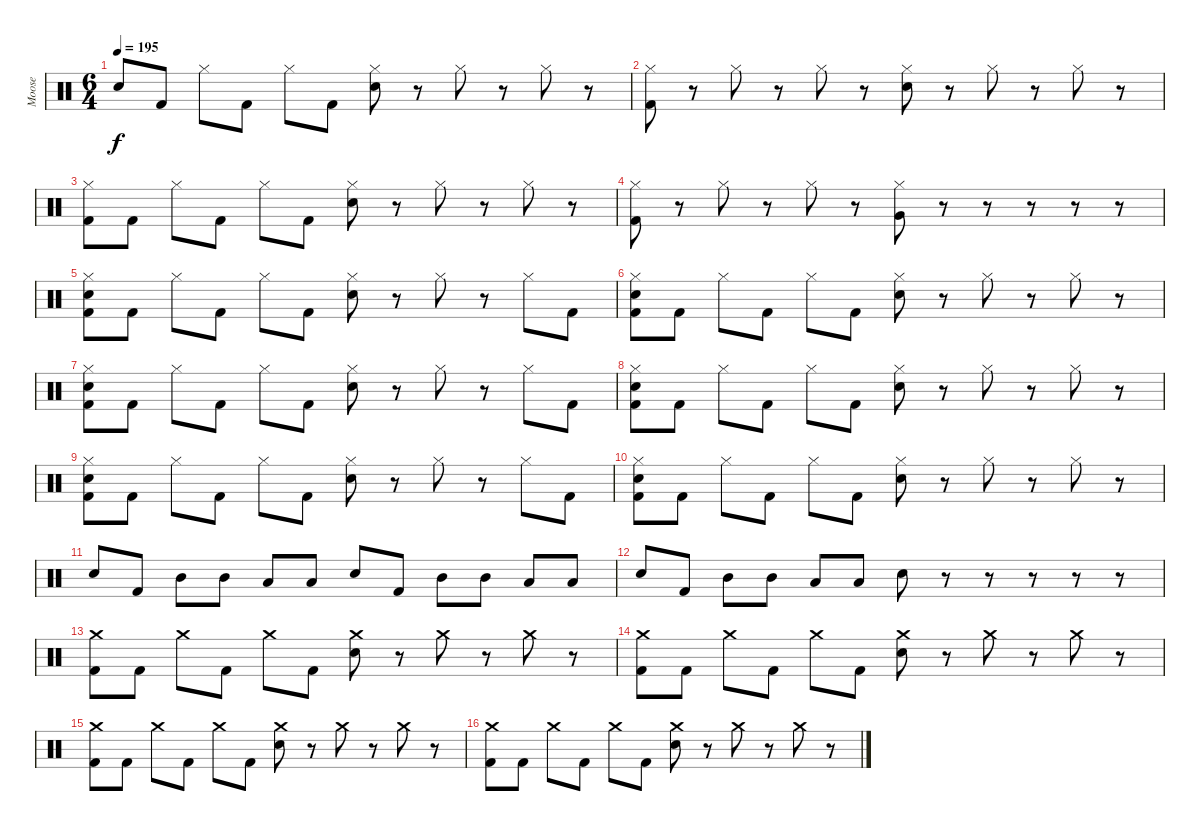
\track ("Moose" "Moose") {instrument percussion}
\staff {score}
\articulation defaults
\ts (6 4)
\tempo 195
\clef neutral
\ks c "Electric Snare (hit)".8{dy f} "Kick (hit) 2".8 "Hi-Hat (closed)".8 "Kick (hit) 2".8 "Hi-Hat (closed)".8 "Kick (hit) 2".8
("Hi-Hat (closed)" "Electric Snare (hit)").8 r.8 "Hi-Hat (closed)".8 r.8 "Hi-Hat (closed)".8 r.8 |
("Hi-Hat (closed)" "Kick (hit) 2").8 r.8 "Hi-Hat (closed)".8 r.8 "Hi-Hat (closed)".8 r.8 ("Hi-Hat (closed)" "Electric Snare (hit)").8 r.8 "Hi-Hat (closed)".8 r.8 "Hi-Hat (closed)".8 r.8 |
("Hi-Hat (closed)" "Kick (hit) 2").8 "Kick (hit) 2".8 "Hi-Hat (closed)".8 "Kick (hit) 2".8 "Hi-Hat (closed)".8 "Kick (hit) 2".8 ("Hi-Hat (closed)" "Electric Snare (hit)").8 r.8 "Hi-Hat (closed)".8 r.8 "Hi-Hat (closed)".8 r.8 |
("Hi-Hat (closed)" "Kick (hit) 2").8 r.8 "Hi-Hat (closed)".8 r.8 "Hi-Hat (closed)".8 r.8 ("Hi-Hat (closed)" "Very Low Tom (hit)").8 r.8 r.8 r.8 r.8 r.8 |
("Hi-Hat (closed)" "Electric Snare (hit)" "Kick (hit) 2").8 "Kick (hit) 2".8 "Hi-Hat (closed)".8 "Kick (hit) 2".8 "Hi-Hat (closed)".8 "Kick (hit) 2".8 ("Hi-Hat (closed)" "Electric Snare (hit)").8 r.8 "Hi-Hat (closed)".8 r.8 "Hi-Hat (closed)".8 "Kick (hit) 2".8 |
("Hi-Hat (closed)" "Electric Snare (hit)" "Kick (hit) 2").8 "Kick (hit) 2".8 "Hi-Hat (closed)".8 "Kick (hit) 2".8 "Hi-Hat (closed)".8 "Kick (hit) 2".8 ("Hi-Hat (closed)" "Electric Snare (hit)").8 r.8 "Hi-Hat (closed)".8 r.8 "Hi-Hat (closed)".8 r.8 |
("Hi-Hat (closed)" "Electric Snare (hit)" "Kick (hit) 2").8 "Kick (hit) 2".8 "Hi-Hat (closed)".8 "Kick (hit) 2".8 "Hi-Hat (closed)".8 "Kick (hit) 2".8 ("Hi-Hat (closed)" "Electric Snare (hit)").8 r.8 "Hi-Hat (closed)".8 r.8 "Hi-Hat (closed)".8 "Kick (hit) 2".8 |
("Hi-Hat (closed)" "Electric Snare (hit)" "Kick (hit) 2").8 "Kick (hit) 2".8 "Hi-Hat (closed)".8 "Kick (hit) 2".8 "Hi-Hat (closed)".8 "Kick (hit) 2".8 ("Hi-Hat (closed)" "Electric Snare (hit)").8 r.8 "Hi-Hat (closed)".8 r.8 "Hi-Hat (closed)".8 r.8 |
("Hi-Hat (closed)" "Electric Snare (hit)" "Kick (hit) 2").8 "Kick (hit) 2".8 "Hi-Hat (closed)".8 "Kick (hit) 2".8 "Hi-Hat (closed)".8 "Kick (hit) 2".8 ("Hi-Hat (closed)" "Electric Snare (hit)").8 r.8 "Hi-Hat (closed)".8 r.8 "Hi-Hat (closed)".8 "Kick (hit) 2".8 |
("Hi-Hat (closed)" "Electric Snare (hit)" "Kick (hit) 2").8 "Kick (hit) 2".8 "Hi-Hat (closed)".8 "Kick (hit) 2".8 "Hi-Hat (closed)".8 "Kick (hit) 2".8 ("Hi-Hat (closed)" "Electric Snare (hit)").8 r.8 "Hi-Hat (closed)".8 r.8 "Hi-Hat (closed)".8 r.8 |
"Electric Snare (hit)".8 "Kick (hit) 2".8 "Mid Tom (hit)".8 "Mid Tom (hit)".8 "Low Tom (hit)".8 "Low Floor Tom (hit)".8 "Electric Snare (hit)".8 "Kick (hit) 2".8 "Mid Tom (hit)".8 "Mid Tom (hit)".8 "Low Tom (hit)".8 "Low Floor Tom (hit)".8 |
"Electric Snare (hit)".8 "Kick (hit) 2".8 "Mid Tom (hit)".8 "Mid Tom (hit)".8 "Low Tom (hit)".8 "Low Floor Tom (hit)".8 "Electric Snare (hit)".8 r.8 r.8 r.8 r.8 r.8 |
("Crash medium (hit)" "Kick (hit) 2").8 "Kick (hit) 2".8 "Crash medium (hit)".8 "Kick (hit) 2".8 "Crash medium (hit)".8 "Kick (hit) 2".8 ("Crash medium (hit)" "Electric Snare (hit)").8 r.8 "Crash medium (hit)".8 r.8 "Crash medium (hit)".8 r.8 |
("Crash medium (hit)" "Kick (hit) 2").8 "Kick (hit) 2".8 "Crash medium (hit)".8 "Kick (hit) 2".8 "Crash medium (hit)".8 "Kick (hit) 2".8 ("Crash medium (hit)" "Electric Snare (hit)").8 r.8 "Crash medium (hit)".8 r.8 "Crash medium (hit)".8 r.8 |
("Crash medium (hit)" "Kick (hit) 2").8 "Kick (hit) 2".8 "Crash medium (hit)".8 "Kick (hit) 2".8 "Crash medium (hit)".8 "Kick (hit) 2".8 ("Crash medium (hit)" "Electric Snare (hit)").8 r.8 "Crash medium (hit)".8 r.8 "Crash medium (hit)".8 r.8 |
("Crash medium (hit)" "Kick (hit) 2").8 "Kick (hit) 2".8 "Crash medium (hit)".8 "Kick (hit) 2".8 "Crash medium (hit)".8 "Kick (hit) 2".8 ("Crash medium (hit)" "Electric Snare (hit)").8 r.8 "Crash medium (hit)".8 r.8 "Crash medium (hit)".8 r.8
